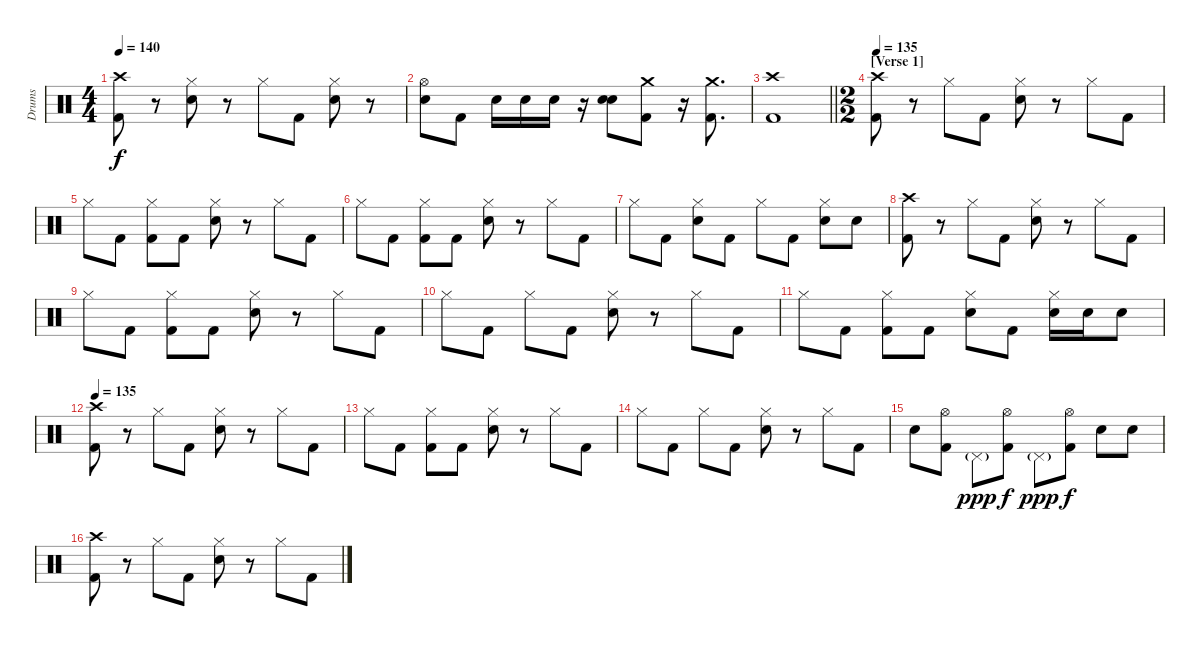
\track ("Drums" "Drums") {instrument percussion}
\staff {score}
\articulation defaults
\ts (4 4)
\tempo 140
\clef neutral
\ks c
("Crash high (hit)" "Kick (hit) 2").8{dy f} r.8 ("Hi-Hat (closed)" "Snare (hit) 2").8 r.8 "Hi-Hat (closed)".8 "Kick (hit) 2".8 ("Hi-Hat (closed)" "Snare (hit) 2").8 r.8 |
("Hi-Hat (open)" "Snare (hit) 2").8 "Kick (hit) 2".8 "Snare (hit) 2".16 "Snare (hit) 2".16 "Snare (hit) 2".16 r.16 ("Snare (hit) 2" "Snare (hit) 2").8{bd 480} ("Crash medium (hit)" "Kick (hit) 2").8 r.16 ("Crash medium (hit)" "Kick (hit) 2").8{d} |
\barLineRight lightlight
("Crash high (hit)" "Kick (hit) 2").1 |
\ts (2 2)
\section ("" "[Verse 1]")
\tempo 120
\tempo 135
("Crash high (hit)" "Kick (hit) 2").8 r.8 "Hi-Hat (closed)".8 "Kick (hit) 2".8 ("Hi-Hat (closed)" "Snare (hit) 2").8 r.8 "Hi-Hat (closed)".8 "Kick (hit) 2".8 |
"Hi-Hat (closed)".8 "Kick (hit) 2".8 ("Hi-Hat (closed)" "Kick (hit) 2").8 "Kick (hit) 2".8 ("Hi-Hat (closed)" "Snare (hit) 2").8 r.8 "Hi-Hat (closed)".8 "Kick (hit) 2".8 |
"Hi-Hat (closed)".8 "Kick (hit) 2".8 ("Hi-Hat (closed)" "Kick (hit) 2").8 "Kick (hit) 2".8 ("Hi-Hat (closed)" "Snare (hit) 2").8 r.8 "Hi-Hat (closed)".8 "Kick (hit) 2".8 |
"Hi-Hat (closed)".8 "Kick (hit) 2".8 ("Hi-Hat (closed)" "Snare (hit) 2").8 "Kick (hit) 2".8 "Hi-Hat (closed)".8 "Kick (hit) 2".8 ("Hi-Hat (closed)" "Snare (hit) 2").8 "Snare (hit) 2".8 |
("Crash high (hit)" "Kick (hit) 2").8 r.8 "Hi-Hat (closed)".8 "Kick (hit) 2".8 ("Hi-Hat (closed)" "Snare (hit) 2").8 r.8 "Hi-Hat (closed)".8 "Kick (hit) 2".8 |
"Hi-Hat (closed)".8 "Kick (hit) 2".8 ("Hi-Hat (closed)" "Kick (hit) 2").8 "Kick (hit) 2".8 ("Hi-Hat (closed)" "Snare (hit) 2").8 r.8 "Hi-Hat (closed)".8 "Kick (hit) 2".8 |
"Hi-Hat (closed)".8 "Kick (hit) 2".8 "Hi-Hat (closed)".8 "Kick (hit) 2".8 ("Hi-Hat (closed)" "Snare (hit) 2").8 r.8 "Hi-Hat (closed)".8 "Kick (hit) 2".8 |
"Hi-Hat (closed)".8 "Kick (hit) 2".8 ("Hi-Hat (closed)" "Kick (hit) 2").8 "Kick (hit) 2".8 ("Hi-Hat (closed)" "Snare (hit) 2").8 "Kick (hit) 2".8 ("Hi-Hat (closed)" "Snare (hit) 2").16 "Snare (hit) 2".16 "Snare (hit) 2".8 |
\tempo 135
("Crash high (hit)" "Kick (hit) 2").8 r.8 "Hi-Hat (closed)".8 "Kick (hit) 2".8 ("Hi-Hat (closed)" "Snare (hit) 2").8 r.8 "Hi-Hat (closed)".8 "Kick (hit) 2".8 |
"Hi-Hat (closed)".8 "Kick (hit) 2".8 ("Hi-Hat (closed)" "Kick (hit) 2").8 "Kick (hit) 2".8 ("Hi-Hat (closed)" "Snare (hit) 2").8 r.8 "Hi-Hat (closed)".8 "Kick (hit) 2".8 |
"Hi-Hat (closed)".8 "Kick (hit) 2".8 "Hi-Hat (closed)".8 "Kick (hit) 2".8 ("Hi-Hat (closed)" "Snare (hit) 2").8 r.8 "Hi-Hat (closed)".8 "Kick (hit) 2".8 |
"Snare (hit) 2".8 ("Hi-Hat (open)" "Kick (hit) 2").8 "Pedal Hi-Hat (hit)"{g}.8{dy ppp} ("Hi-Hat (open)" "Kick (hit) 2").8{dy f} "Pedal Hi-Hat (hit)"{g}.8{dy ppp} ("Hi-Hat (open)" "Kick (hit) 2").8{dy f} "Snare (hit) 2".8 "Snare (hit) 2".8 |
("Crash high (hit)" "Kick (hit) 2").8 r.8 "Hi-Hat (closed)".8 "Kick (hit) 2".8 ("Hi-Hat (closed)" "Snare (hit) 2").8 r.8 "Hi-Hat (closed)".8 "Kick (hit) 2".8
